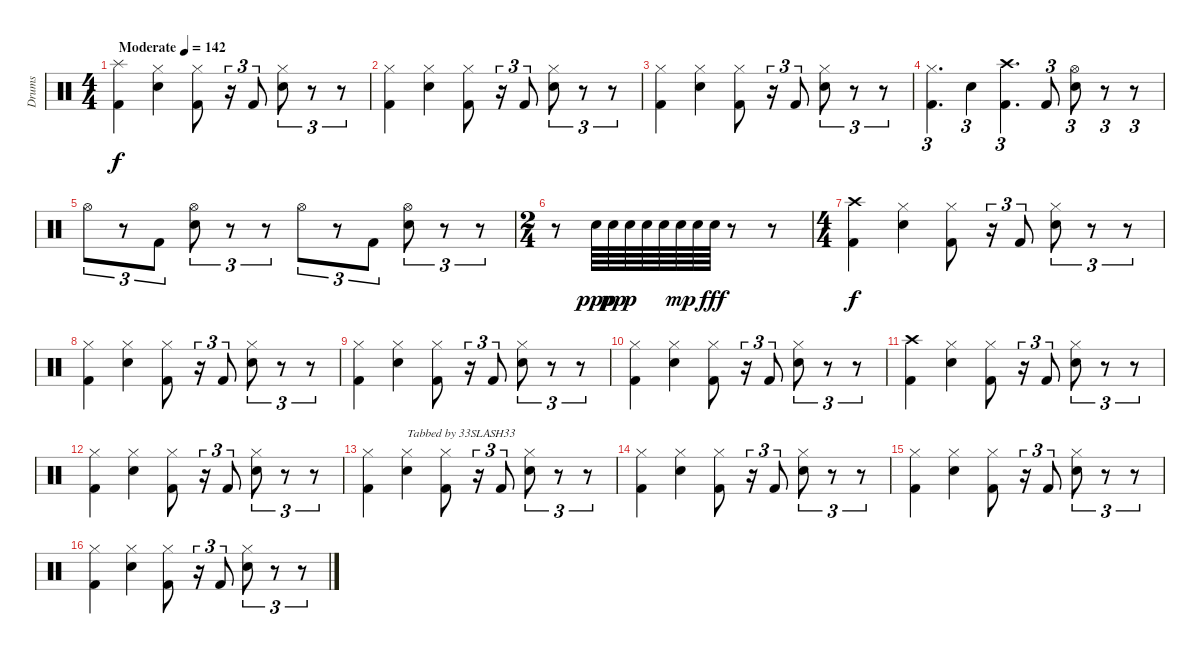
\track ("Drums" "Drums") {instrument percussion}
\staff {score}
\articulation defaults
\ts (4 4)
\tempo (142 "Moderate")
\clef neutral
\ks c
("Splash (hit)" "Kick (hit) 2").4{dy f} ("Hi-Hat (closed)" "Snare (hit) 2").4 ("Hi-Hat (closed)" "Kick (hit) 2").8 r.16{tu (3 2)} "Kick (hit) 2".8{tu (3 2)} ("Hi-Hat (closed)" "Snare (hit) 2").8{tu (3 2)} r.8{tu (3 2)} r.8{tu (3 2)} |
("Hi-Hat (closed)" "Kick (hit) 2").4 ("Hi-Hat (closed)" "Snare (hit) 2").4 ("Hi-Hat (closed)" "Kick (hit) 2").8 r.16{tu (3 2)} "Kick (hit) 2".8{tu (3 2)} ("Hi-Hat (closed)" "Snare (hit) 2").8{tu (3 2)} r.8{tu (3 2)} r.8{tu (3 2)} |
("Hi-Hat (closed)" "Kick (hit) 2").4 ("Hi-Hat (closed)" "Snare (hit) 2").4 ("Hi-Hat (closed)" "Kick (hit) 2").8 r.16{tu (3 2)} "Kick (hit) 2".8{tu (3 2)} ("Hi-Hat (closed)" "Snare (hit) 2").8{tu (3 2)} r.8{tu (3 2)} r.8{tu (3 2)} |
("Hi-Hat (closed)" "Kick (hit) 2").4{d tu (3 2)} "Snare (hit) 2".4{tu (3 2)} ("Crash high (hit)" "Kick (hit) 2").4{d tu (3 2)} "Kick (hit) 2".8{tu (3 2)} ("Hi-Hat (open)" "Snare (hit) 2").8{tu (3 2)} r.8{tu (3 2)} r.8{tu (3 2)} |
"Hi-Hat (open)".8{tu (3 2)} r.8{tu (3 2)} "Kick (hit) 2".8{tu (3 2)} ("Hi-Hat (open)" "Snare (hit) 2").8{tu (3 2)} r.8{tu (3 2)} r.8{tu (3 2)} "Hi-Hat (open)".8{tu (3 2)} r.8{tu (3 2)} "Kick (hit) 2".8{tu (3 2)} ("Hi-Hat (open)" "Snare (hit) 2").8{tu (3 2)} r.8{tu (3 2)} r.8{tu (3 2)} |
\ts (2 4)
r.8 "Snare (hit) 2".64{dy ppp} "Snare (hit) 2".64{dy pp} "Snare (hit) 2".64{dy p} "Snare (hit) 2".64 "Snare (hit) 2".64 "Snare (hit) 2".64{dy mp} "Snare (hit) 2".64 "Snare (hit) 2".64{dy fff} r.8 r.8 |
\ts (4 4)
("Crash high (hit)" "Kick (hit) 2").4{dy f} ("Hi-Hat (closed)" "Snare (hit) 2").4 ("Hi-Hat (closed)" "Kick (hit) 2").8 r.16{tu (3 2)} "Kick (hit) 2".8{tu (3 2)} ("Hi-Hat (closed)" "Snare (hit) 2").8{tu (3 2)} r.8{tu (3 2)} r.8{tu (3 2)} |
("Hi-Hat (closed)" "Kick (hit) 2").4 ("Hi-Hat (closed)" "Snare (hit) 2").4 ("Hi-Hat (closed)" "Kick (hit) 2").8 r.16{tu (3 2)} "Kick (hit) 2".8{tu (3 2)} ("Hi-Hat (closed)" "Snare (hit) 2").8{tu (3 2)} r.8{tu (3 2)} r.8{tu (3 2)} |
("Hi-Hat (closed)" "Kick (hit) 2").4 ("Hi-Hat (closed)" "Snare (hit) 2").4 ("Hi-Hat (closed)" "Kick (hit) 2").8 r.16{tu (3 2)} "Kick (hit) 2".8{tu (3 2)} ("Hi-Hat (closed)" "Snare (hit) 2").8{tu (3 2)} r.8{tu (3 2)} r.8{tu (3 2)} |
("Hi-Hat (closed)" "Kick (hit) 2").4 ("Hi-Hat (closed)" "Snare (hit) 2").4 ("Hi-Hat (closed)" "Kick (hit) 2").8 r.16{tu (3 2)} "Kick (hit) 2".8{tu (3 2)} ("Hi-Hat (closed)" "Snare (hit) 2").8{tu (3 2)} r.8{tu (3 2)} r.8{tu (3 2)} |
("Crash high (hit)" "Kick (hit) 2").4 ("Hi-Hat (closed)" "Snare (hit) 2").4 ("Hi-Hat (closed)" "Kick (hit) 2").8 r.16{tu (3 2)} "Kick (hit) 2".8{tu (3 2)} ("Hi-Hat (closed)" "Snare (hit) 2").8{tu (3 2)} r.8{tu (3 2)} r.8{tu (3 2)} |
("Hi-Hat (closed)" "Kick (hit) 2").4 ("Hi-Hat (closed)" "Snare (hit) 2").4 ("Hi-Hat (closed)" "Kick (hit) 2").8 r.16{tu (3 2)} "Kick (hit) 2".8{tu (3 2)} ("Hi-Hat (closed)" "Snare (hit) 2").8{tu (3 2)} r.8{tu (3 2)} r.8{tu (3 2)} |
("Hi-Hat (closed)" "Kick (hit) 2").4 ("Hi-Hat (closed)" "Snare (hit) 2").4{txt "Tabbed by 33SLASH33"} ("Hi-Hat (closed)" "Kick (hit) 2").8 r.16{tu (3 2)} "Kick (hit) 2".8{tu (3 2)} ("Hi-Hat (closed)" "Snare (hit) 2").8{tu (3 2)} r.8{tu (3 2)} r.8{tu (3 2)} |
("Hi-Hat (closed)" "Kick (hit) 2").4 ("Hi-Hat (closed)" "Snare (hit) 2").4 ("Hi-Hat (closed)" "Kick (hit) 2").8 r.16{tu (3 2)} "Kick (hit) 2".8{tu (3 2)} ("Hi-Hat (closed)" "Snare (hit) 2").8{tu (3 2)} r.8{tu (3 2)} r.8{tu (3 2)} |
("Hi-Hat (closed)" "Kick (hit) 2").4 ("Hi-Hat (closed)" "Snare (hit) 2").4 ("Hi-Hat (closed)" "Kick (hit) 2").8 r.16{tu (3 2)} "Kick (hit) 2".8{tu (3 2)} ("Hi-Hat (closed)" "Snare (hit) 2").8{tu (3 2)} r.8{tu (3 2)} r.8{tu (3 2)} |
("Hi-Hat (closed)" "Kick (hit) 2").4 ("Hi-Hat (closed)" "Snare (hit) 2").4 ("Hi-Hat (closed)" "Kick (hit) 2").8 r.16{tu (3 2)} "Kick (hit) 2".8{tu (3 2)} ("Hi-Hat (closed)" "Snare (hit) 2").8{tu (3 2)} r.8{tu (3 2)} r.8{tu (3 2)}
